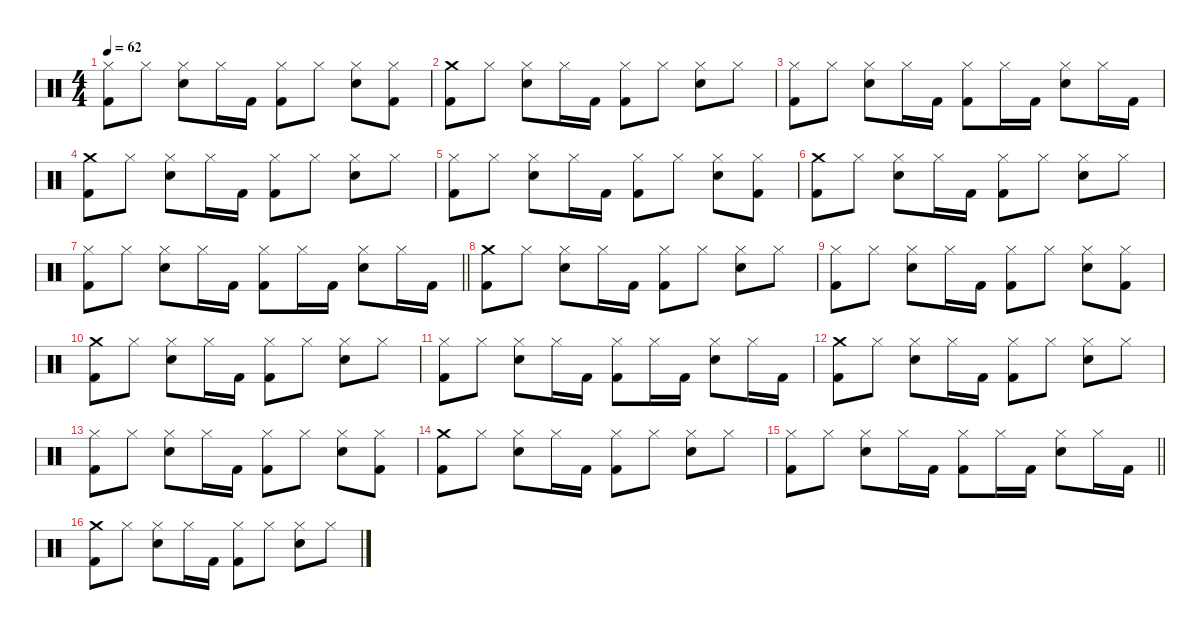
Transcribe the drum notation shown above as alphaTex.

\defaultSystemsLayout 4
\hideDynamics
\bracketExtendMode nobrackets
\singleTrackTrackNamePolicy hidden
\multiTrackTrackNamePolicy hidden
\firstSystemTrackNameMode fullname
\otherSystemsTrackNameOrientation horizontal
\track ("Drums" "drm.") {defaultSystemsLayout 4 instrument percussion}
\staff {score}
\articulation defaults
\ts (4 4)
\tempo 62
\clef neutral
\ks c
("Hi-Hat (closed)" "Kick (hit) 2").8{dy f beam Down} "Hi-Hat (closed)".8{beam Down} ("Hi-Hat (closed)" "Snare (hit) 2").8{beam Down} "Hi-Hat (closed)".16{beam Down} "Kick (hit) 2".16{beam Down} ("Hi-Hat (closed)" "Kick (hit) 2").8{beam Down} "Hi-Hat (closed)".8{beam Down} ("Hi-Hat (closed)" "Snare (hit) 2").8{beam Down} ("Hi-Hat (closed)" "Kick (hit) 2").8{beam Down} |
("Crash medium (hit)" "Kick (hit) 2").8{beam Down} "Hi-Hat (closed)".8{beam Down} ("Hi-Hat (closed)" "Snare (hit) 2").8{beam Down} "Hi-Hat (closed)".16{beam Down} "Kick (hit) 2".16{beam Down} ("Hi-Hat (closed)" "Kick (hit) 2").8{beam Down} "Hi-Hat (closed)".8{beam Down} ("Hi-Hat (closed)" "Snare (hit) 2").8{beam Down} "Hi-Hat (closed)".8{beam Down} |
("Hi-Hat (closed)" "Kick (hit) 2").8{beam Down} "Hi-Hat (closed)".8{beam Down} ("Hi-Hat (closed)" "Snare (hit) 2").8{beam Down} "Hi-Hat (closed)".16{beam Down} "Kick (hit) 2".16{beam Down} ("Hi-Hat (closed)" "Kick (hit) 2").8{beam Down} "Hi-Hat (closed)".16{beam Down} "Kick (hit) 2".16{beam Down} ("Hi-Hat (closed)" "Snare (hit) 2").8{beam Down} "Hi-Hat (closed)".16{beam Down} "Kick (hit) 2".16{beam Down} |
("Crash medium (hit)" "Kick (hit) 2").8{beam Down} "Hi-Hat (closed)".8{beam Down} ("Hi-Hat (closed)" "Snare (hit) 2").8{beam Down} "Hi-Hat (closed)".16{beam Down} "Kick (hit) 2".16{beam Down} ("Hi-Hat (closed)" "Kick (hit) 2").8{beam Down} "Hi-Hat (closed)".8{beam Down} ("Hi-Hat (closed)" "Snare (hit) 2").8{beam Down} "Hi-Hat (closed)".8{beam Down} |
("Hi-Hat (closed)" "Kick (hit) 2").8{beam Down} "Hi-Hat (closed)".8{beam Down} ("Hi-Hat (closed)" "Snare (hit) 2").8{beam Down} "Hi-Hat (closed)".16{beam Down} "Kick (hit) 2".16{beam Down} ("Hi-Hat (closed)" "Kick (hit) 2").8{beam Down} "Hi-Hat (closed)".8{beam Down} ("Hi-Hat (closed)" "Snare (hit) 2").8{beam Down} ("Hi-Hat (closed)" "Kick (hit) 2").8{beam Down} |
("Crash medium (hit)" "Kick (hit) 2").8{beam Down} "Hi-Hat (closed)".8{beam Down} ("Hi-Hat (closed)" "Snare (hit) 2").8{beam Down} "Hi-Hat (closed)".16{beam Down} "Kick (hit) 2".16{beam Down} ("Hi-Hat (closed)" "Kick (hit) 2").8{beam Down} "Hi-Hat (closed)".8{beam Down} ("Hi-Hat (closed)" "Snare (hit) 2").8{beam Down} "Hi-Hat (closed)".8{beam Down} |
\barLineRight lightlight
("Hi-Hat (closed)" "Kick (hit) 2").8{beam Down} "Hi-Hat (closed)".8{beam Down} ("Hi-Hat (closed)" "Snare (hit) 2").8{beam Down} "Hi-Hat (closed)".16{beam Down} "Kick (hit) 2".16{beam Down} ("Hi-Hat (closed)" "Kick (hit) 2").8{beam Down} "Hi-Hat (closed)".16{beam Down} "Kick (hit) 2".16{beam Down} ("Hi-Hat (closed)" "Snare (hit) 2").8{beam Down} "Hi-Hat (closed)".16{beam Down} "Kick (hit) 2".16{beam Down} |
("Crash medium (hit)" "Kick (hit) 2").8{beam Down} "Hi-Hat (closed)".8{beam Down} ("Hi-Hat (closed)" "Snare (hit) 2").8{beam Down} "Hi-Hat (closed)".16{beam Down} "Kick (hit) 2".16{beam Down} ("Hi-Hat (closed)" "Kick (hit) 2").8{beam Down} "Hi-Hat (closed)".8{beam Down} ("Hi-Hat (closed)" "Snare (hit) 2").8{beam Down} "Hi-Hat (closed)".8{beam Down} |
("Hi-Hat (closed)" "Kick (hit) 2").8{beam Down} "Hi-Hat (closed)".8{beam Down} ("Hi-Hat (closed)" "Snare (hit) 2").8{beam Down} "Hi-Hat (closed)".16{beam Down} "Kick (hit) 2".16{beam Down} ("Hi-Hat (closed)" "Kick (hit) 2").8{beam Down} "Hi-Hat (closed)".8{beam Down} ("Hi-Hat (closed)" "Snare (hit) 2").8{beam Down} ("Hi-Hat (closed)" "Kick (hit) 2").8{beam Down} |
("Crash medium (hit)" "Kick (hit) 2").8{beam Down} "Hi-Hat (closed)".8{beam Down} ("Hi-Hat (closed)" "Snare (hit) 2").8{beam Down} "Hi-Hat (closed)".16{beam Down} "Kick (hit) 2".16{beam Down} ("Hi-Hat (closed)" "Kick (hit) 2").8{beam Down} "Hi-Hat (closed)".8{beam Down} ("Hi-Hat (closed)" "Snare (hit) 2").8{beam Down} "Hi-Hat (closed)".8{beam Down} |
("Hi-Hat (closed)" "Kick (hit) 2").8{beam Down} "Hi-Hat (closed)".8{beam Down} ("Hi-Hat (closed)" "Snare (hit) 2").8{beam Down} "Hi-Hat (closed)".16{beam Down} "Kick (hit) 2".16{beam Down} ("Hi-Hat (closed)" "Kick (hit) 2").8{beam Down} "Hi-Hat (closed)".16{beam Down} "Kick (hit) 2".16{beam Down} ("Hi-Hat (closed)" "Snare (hit) 2").8{beam Down} "Hi-Hat (closed)".16{beam Down} "Kick (hit) 2".16{beam Down} |
("Crash medium (hit)" "Kick (hit) 2").8{beam Down} "Hi-Hat (closed)".8{beam Down} ("Hi-Hat (closed)" "Snare (hit) 2").8{beam Down} "Hi-Hat (closed)".16{beam Down} "Kick (hit) 2".16{beam Down} ("Hi-Hat (closed)" "Kick (hit) 2").8{beam Down} "Hi-Hat (closed)".8{beam Down} ("Hi-Hat (closed)" "Snare (hit) 2").8{beam Down} "Hi-Hat (closed)".8{beam Down} |
("Hi-Hat (closed)" "Kick (hit) 2").8{beam Down} "Hi-Hat (closed)".8{beam Down} ("Hi-Hat (closed)" "Snare (hit) 2").8{beam Down} "Hi-Hat (closed)".16{beam Down} "Kick (hit) 2".16{beam Down} ("Hi-Hat (closed)" "Kick (hit) 2").8{beam Down} "Hi-Hat (closed)".8{beam Down} ("Hi-Hat (closed)" "Snare (hit) 2").8{beam Down} ("Hi-Hat (closed)" "Kick (hit) 2").8{beam Down} |
("Crash medium (hit)" "Kick (hit) 2").8{beam Down} "Hi-Hat (closed)".8{beam Down} ("Hi-Hat (closed)" "Snare (hit) 2").8{beam Down} "Hi-Hat (closed)".16{beam Down} "Kick (hit) 2".16{beam Down} ("Hi-Hat (closed)" "Kick (hit) 2").8{beam Down} "Hi-Hat (closed)".8{beam Down} ("Hi-Hat (closed)" "Snare (hit) 2").8{beam Down} "Hi-Hat (closed)".8{beam Down} |
\barLineRight lightlight
("Hi-Hat (closed)" "Kick (hit) 2").8{beam Down} "Hi-Hat (closed)".8{beam Down} ("Hi-Hat (closed)" "Snare (hit) 2").8{beam Down} "Hi-Hat (closed)".16{beam Down} "Kick (hit) 2".16{beam Down} ("Hi-Hat (closed)" "Kick (hit) 2").8{beam Down} "Hi-Hat (closed)".16{beam Down} "Kick (hit) 2".16{beam Down} ("Hi-Hat (closed)" "Snare (hit) 2").8{beam Down} "Hi-Hat (closed)".16{beam Down} "Kick (hit) 2".16{beam Down} |
("Crash medium (hit)" "Kick (hit) 2").8{beam Down} "Hi-Hat (closed)".8{beam Down} ("Hi-Hat (closed)" "Snare (hit) 2").8{beam Down} "Hi-Hat (closed)".16{beam Down} "Kick (hit) 2".16{beam Down} ("Hi-Hat (closed)" "Kick (hit) 2").8{beam Down} "Hi-Hat (closed)".8{beam Down} ("Hi-Hat (closed)" "Snare (hit) 2").8{beam Down} "Hi-Hat (closed)".8{beam Down}
